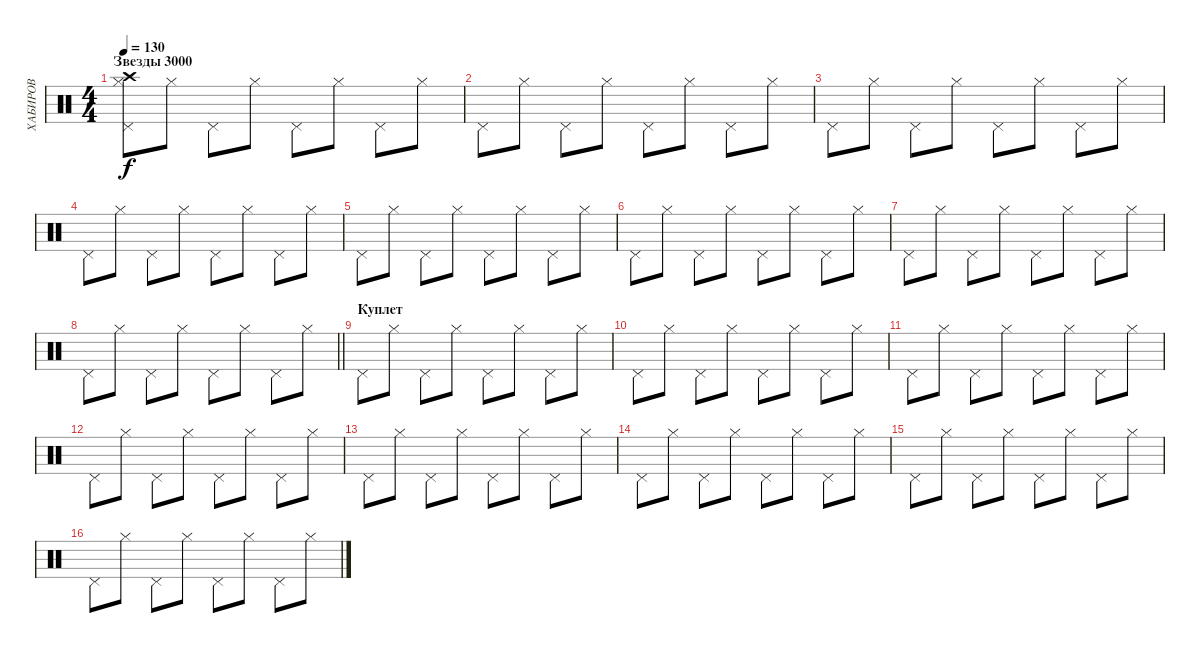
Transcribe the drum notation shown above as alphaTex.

\track ("ХАБИРОВ" "ХАБИРОВ") {instrument percussion}
\staff {score}
\articulation defaults
\ts (4 4)
\section ("" "Звезды 3000")
\tempo 130
\clef neutral
\ks c
("Pedal Hi-Hat (hit)" "Hi-Hat (closed)" "Crash high (hit)").8{dy f} "Hi-Hat (closed)".8 "Pedal Hi-Hat (hit)".8 "Hi-Hat (closed)".8 "Pedal Hi-Hat (hit)".8 "Hi-Hat (closed)".8 "Pedal Hi-Hat (hit)".8 "Hi-Hat (closed)".8 |
"Pedal Hi-Hat (hit)".8 "Hi-Hat (closed)".8 "Pedal Hi-Hat (hit)".8 "Hi-Hat (closed)".8 "Pedal Hi-Hat (hit)".8 "Hi-Hat (closed)".8 "Pedal Hi-Hat (hit)".8 "Hi-Hat (closed)".8 |
"Pedal Hi-Hat (hit)".8 "Hi-Hat (closed)".8 "Pedal Hi-Hat (hit)".8 "Hi-Hat (closed)".8 "Pedal Hi-Hat (hit)".8 "Hi-Hat (closed)".8 "Pedal Hi-Hat (hit)".8 "Hi-Hat (closed)".8 |
"Pedal Hi-Hat (hit)".8 "Hi-Hat (closed)".8 "Pedal Hi-Hat (hit)".8 "Hi-Hat (closed)".8 "Pedal Hi-Hat (hit)".8 "Hi-Hat (closed)".8 "Pedal Hi-Hat (hit)".8 "Hi-Hat (closed)".8 |
"Pedal Hi-Hat (hit)".8 "Hi-Hat (closed)".8 "Pedal Hi-Hat (hit)".8 "Hi-Hat (closed)".8 "Pedal Hi-Hat (hit)".8 "Hi-Hat (closed)".8 "Pedal Hi-Hat (hit)".8 "Hi-Hat (closed)".8 |
"Pedal Hi-Hat (hit)".8 "Hi-Hat (closed)".8 "Pedal Hi-Hat (hit)".8 "Hi-Hat (closed)".8 "Pedal Hi-Hat (hit)".8 "Hi-Hat (closed)".8 "Pedal Hi-Hat (hit)".8 "Hi-Hat (closed)".8 |
"Pedal Hi-Hat (hit)".8 "Hi-Hat (closed)".8 "Pedal Hi-Hat (hit)".8 "Hi-Hat (closed)".8 "Pedal Hi-Hat (hit)".8 "Hi-Hat (closed)".8 "Pedal Hi-Hat (hit)".8 "Hi-Hat (closed)".8 |
\barLineRight lightlight "Pedal Hi-Hat (hit)".8 "Hi-Hat (closed)".8 "Pedal Hi-Hat (hit)".8 "Hi-Hat (closed)".8 "Pedal Hi-Hat (hit)".8 "Hi-Hat (closed)".8 "Pedal Hi-Hat (hit)".8 "Hi-Hat (closed)".8
|
\section ("" "Куплет")
"Pedal Hi-Hat (hit)".8 "Hi-Hat (closed)".8 "Pedal Hi-Hat (hit)".8 "Hi-Hat (closed)".8 "Pedal Hi-Hat (hit)".8 "Hi-Hat (closed)".8 "Pedal Hi-Hat (hit)".8 "Hi-Hat (closed)".8 |
"Pedal Hi-Hat (hit)".8 "Hi-Hat (closed)".8 "Pedal Hi-Hat (hit)".8 "Hi-Hat (closed)".8 "Pedal Hi-Hat (hit)".8 "Hi-Hat (closed)".8 "Pedal Hi-Hat (hit)".8 "Hi-Hat (closed)".8 |
"Pedal Hi-Hat (hit)".8 "Hi-Hat (closed)".8 "Pedal Hi-Hat (hit)".8 "Hi-Hat (closed)".8 "Pedal Hi-Hat (hit)".8 "Hi-Hat (closed)".8 "Pedal Hi-Hat (hit)".8 "Hi-Hat (closed)".8 |
"Pedal Hi-Hat (hit)".8 "Hi-Hat (closed)".8 "Pedal Hi-Hat (hit)".8 "Hi-Hat (closed)".8 "Pedal Hi-Hat (hit)".8 "Hi-Hat (closed)".8 "Pedal Hi-Hat (hit)".8 "Hi-Hat (closed)".8 |
"Pedal Hi-Hat (hit)".8 "Hi-Hat (closed)".8 "Pedal Hi-Hat (hit)".8 "Hi-Hat (closed)".8 "Pedal Hi-Hat (hit)".8 "Hi-Hat (closed)".8 "Pedal Hi-Hat (hit)".8 "Hi-Hat (closed)".8 |
"Pedal Hi-Hat (hit)".8 "Hi-Hat (closed)".8 "Pedal Hi-Hat (hit)".8 "Hi-Hat (closed)".8 "Pedal Hi-Hat (hit)".8 "Hi-Hat (closed)".8 "Pedal Hi-Hat (hit)".8 "Hi-Hat (closed)".8 |
"Pedal Hi-Hat (hit)".8 "Hi-Hat (closed)".8 "Pedal Hi-Hat (hit)".8 "Hi-Hat (closed)".8 "Pedal Hi-Hat (hit)".8 "Hi-Hat (closed)".8 "Pedal Hi-Hat (hit)".8 "Hi-Hat (closed)".8 |
"Pedal Hi-Hat (hit)".8 "Hi-Hat (closed)".8 "Pedal Hi-Hat (hit)".8 "Hi-Hat (closed)".8 "Pedal Hi-Hat (hit)".8 "Hi-Hat (closed)".8 "Pedal Hi-Hat (hit)".8 "Hi-Hat (closed)".8
